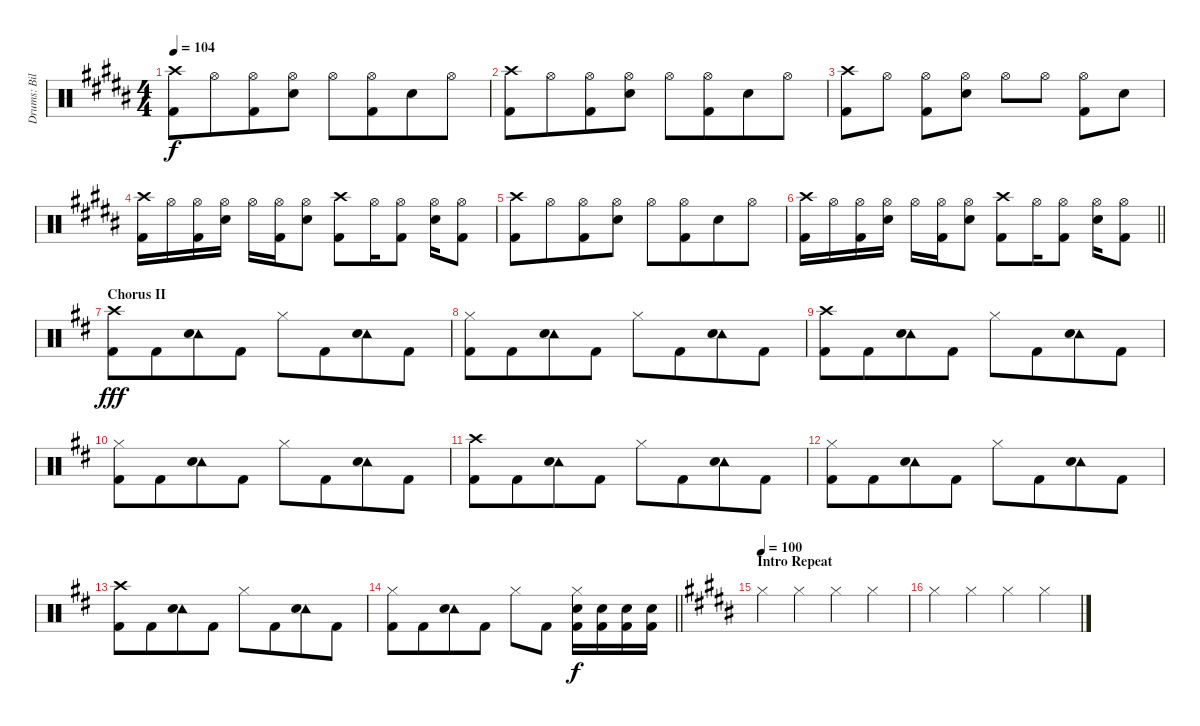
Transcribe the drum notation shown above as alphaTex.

\track ("Drums: Bill" "Drums: Bil") {instrument percussion}
\staff {score}
\articulation defaults
\ts (4 4)
\tempo 104
\clef neutral
\ks b
("Crash high (hit)" "Kick (hit) 2").8{dy f} "Hi-Hat (open)".8{beam merge} ("Hi-Hat (open)" "Kick (hit) 2").8 ("Hi-Hat (open)" "Electric Snare (hit)").8 "Hi-Hat (open)".8 ("Hi-Hat (open)" "Kick (hit) 2").8{beam merge} "Electric Snare (hit)".8 "Hi-Hat (open)".8 |
("Crash high (hit)" "Kick (hit) 2").8 "Hi-Hat (open)".8{beam merge} ("Hi-Hat (open)" "Kick (hit) 2").8 ("Hi-Hat (open)" "Electric Snare (hit)").8 "Hi-Hat (open)".8 ("Hi-Hat (open)" "Kick (hit) 2").8{beam merge} "Electric Snare (hit)".8 "Hi-Hat (open)".8 |
("Crash high (hit)" "Kick (hit) 2").8 "Hi-Hat (open)".8 ("Hi-Hat (open)" "Kick (hit) 2").8 ("Hi-Hat (open)" "Electric Snare (hit)").8 "Hi-Hat (open)".8 "Hi-Hat (open)".8 ("Hi-Hat (open)" "Kick (hit) 2").8 "Electric Snare (hit)".8 |
("Crash high (hit)" "Kick (hit) 2").16 "Hi-Hat (open)".16 ("Hi-Hat (open)" "Kick (hit) 2").16 ("Hi-Hat (open)" "Electric Snare (hit)").16 "Hi-Hat (open)".16 ("Hi-Hat (open)" "Kick (hit) 2").16 ("Hi-Hat (open)" "Electric Snare (hit)").8 ("Crash high (hit)" "Kick (hit) 2").8 "Hi-Hat (open)".16 ("Hi-Hat (open)" "Kick (hit) 2").8 ("Hi-Hat (open)" "Electric Snare (hit)").16 ("Hi-Hat (open)" "Kick (hit) 2").8 |
("Crash high (hit)" "Kick (hit) 2").8 "Hi-Hat (open)".8{beam merge} ("Hi-Hat (open)" "Kick (hit) 2").8 ("Hi-Hat (open)" "Electric Snare (hit)").8 "Hi-Hat (open)".8 ("Hi-Hat (open)" "Kick (hit) 2").8{beam merge} "Electric Snare (hit)".8 "Hi-Hat (open)".8 |
\barLineRight lightlight
("Crash high (hit)" "Kick (hit) 2").16 "Hi-Hat (open)".16 ("Hi-Hat (open)" "Kick (hit) 2").16 ("Hi-Hat (open)" "Electric Snare (hit)").16 "Hi-Hat (open)".16 ("Hi-Hat (open)" "Kick (hit) 2").16 ("Hi-Hat (open)" "Electric Snare (hit)").8 ("Crash high (hit)" "Kick (hit) 2").8 "Hi-Hat (open)".16 ("Hi-Hat (open)" "Kick (hit) 2").8 ("Hi-Hat (open)" "Electric Snare (hit)").16 ("Hi-Hat (open)" "Kick (hit) 2").8 |
\section ("" "Chorus II")
\ks d
("Crash high (hit)" "Kick (hit) 2").8{dy fff} "Kick (hit) 2".8{beam merge} ("Tambourine (hit)" "Electric Snare (hit)").8 "Kick (hit) 2".8 "Hi-Hat (closed)".8 "Kick (hit) 2".8{beam merge} ("Tambourine (hit)" "Electric Snare (hit)").8 "Kick (hit) 2".8 |
("Hi-Hat (closed)" "Kick (hit) 2").8 "Kick (hit) 2".8{beam merge} ("Tambourine (hit)" "Electric Snare (hit)").8 "Kick (hit) 2".8 "Hi-Hat (closed)".8 "Kick (hit) 2".8{beam merge} ("Tambourine (hit)" "Electric Snare (hit)").8 "Kick (hit) 2".8 |
("Crash high (hit)" "Kick (hit) 2").8 "Kick (hit) 2".8{beam merge} ("Tambourine (hit)" "Electric Snare (hit)").8 "Kick (hit) 2".8 "Hi-Hat (closed)".8 "Kick (hit) 2".8{beam merge} ("Tambourine (hit)" "Electric Snare (hit)").8 "Kick (hit) 2".8 |
("Hi-Hat (closed)" "Kick (hit) 2").8 "Kick (hit) 2".8{beam merge} ("Tambourine (hit)" "Electric Snare (hit)").8 "Kick (hit) 2".8 "Hi-Hat (closed)".8 "Kick (hit) 2".8{beam merge} ("Tambourine (hit)" "Electric Snare (hit)").8 "Kick (hit) 2".8 |
("Crash high (hit)" "Kick (hit) 2").8 "Kick (hit) 2".8{beam merge} ("Tambourine (hit)" "Electric Snare (hit)").8 "Kick (hit) 2".8 "Hi-Hat (closed)".8 "Kick (hit) 2".8{beam merge} ("Tambourine (hit)" "Electric Snare (hit)").8 "Kick (hit) 2".8 |
("Hi-Hat (closed)" "Kick (hit) 2").8 "Kick (hit) 2".8{beam merge} ("Tambourine (hit)" "Electric Snare (hit)").8 "Kick (hit) 2".8 "Hi-Hat (closed)".8 "Kick (hit) 2".8{beam merge} ("Tambourine (hit)" "Electric Snare (hit)").8 "Kick (hit) 2".8 |
("Crash high (hit)" "Kick (hit) 2").8 "Kick (hit) 2".8{beam merge} ("Tambourine (hit)" "Electric Snare (hit)").8 "Kick (hit) 2".8 "Hi-Hat (closed)".8 "Kick (hit) 2".8{beam merge} ("Tambourine (hit)" "Electric Snare (hit)").8 "Kick (hit) 2".8 |
\barLineRight lightlight
("Hi-Hat (closed)" "Kick (hit) 2").8 "Kick (hit) 2".8{beam merge} ("Tambourine (hit)" "Electric Snare (hit)").8 "Kick (hit) 2".8 "Hi-Hat (closed)".8 "Kick (hit) 2".8 ("Hi-Hat (closed)" "Electric Snare (hit)" "Kick (hit) 2").16{dy f} ("Electric Snare (hit)" "Kick (hit) 2").16 ("Electric Snare (hit)" "Kick (hit) 2").16 ("Electric Snare (hit)" "Kick (hit) 2").16 |
\section ("" "Intro Repeat")
\tempo 100
\ks b "Hi-Hat (closed)".4 "Hi-Hat (closed)".4 "Hi-Hat (closed)".4 "Hi-Hat (closed)".4
|
"Hi-Hat (closed)".4 "Hi-Hat (closed)".4 "Hi-Hat (closed)".4 "Hi-Hat (closed)".4
